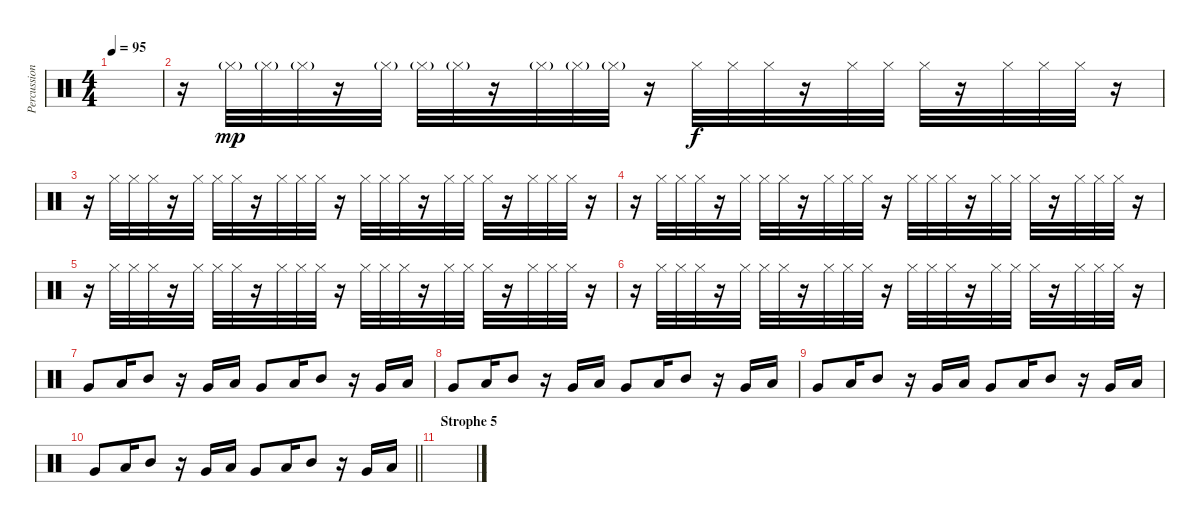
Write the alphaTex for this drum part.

\track ("Percussion" "Percussion") {instrument percussion}
\staff {score}
\articulation defaults
\ts (4 4)
\tempo 95
\clef neutral
\ks c
|
r.16 "Hi-Hat (closed)"{g}.32{dy mp} "Hi-Hat (closed)"{g}.32 "Hi-Hat (closed)"{g}.32 r.16 "Hi-Hat (closed)"{g}.32 "Hi-Hat (closed)"{g}.32 "Hi-Hat (closed)"{g}.32 r.16 "Hi-Hat (closed)"{g}.32 "Hi-Hat (closed)"{g}.32 "Hi-Hat (closed)"{g}.32 r.16 "Hi-Hat (closed)".32{dy f} "Hi-Hat (closed)".32 "Hi-Hat (closed)".32 r.16 "Hi-Hat (closed)".32 "Hi-Hat (closed)".32 "Hi-Hat (closed)".32 r.16 "Hi-Hat (closed)".32 "Hi-Hat (closed)".32 "Hi-Hat (closed)".32 r.16 |
r.16 "Hi-Hat (closed)".32 "Hi-Hat (closed)".32 "Hi-Hat (closed)".32 r.16 "Hi-Hat (closed)".32 "Hi-Hat (closed)".32 "Hi-Hat (closed)".32 r.16 "Hi-Hat (closed)".32 "Hi-Hat (closed)".32 "Hi-Hat (closed)".32 r.16 "Hi-Hat (closed)".32 "Hi-Hat (closed)".32 "Hi-Hat (closed)".32 r.16 "Hi-Hat (closed)".32 "Hi-Hat (closed)".32 "Hi-Hat (closed)".32 r.16 "Hi-Hat (closed)".32 "Hi-Hat (closed)".32 "Hi-Hat (closed)".32 r.16 |
r.16 "Hi-Hat (closed)".32 "Hi-Hat (closed)".32 "Hi-Hat (closed)".32 r.16 "Hi-Hat (closed)".32 "Hi-Hat (closed)".32 "Hi-Hat (closed)".32 r.16 "Hi-Hat (closed)".32 "Hi-Hat (closed)".32 "Hi-Hat (closed)".32 r.16 "Hi-Hat (closed)".32 "Hi-Hat (closed)".32 "Hi-Hat (closed)".32 r.16 "Hi-Hat (closed)".32 "Hi-Hat (closed)".32 "Hi-Hat (closed)".32 r.16 "Hi-Hat (closed)".32 "Hi-Hat (closed)".32 "Hi-Hat (closed)".32 r.16 |
r.16 "Hi-Hat (closed)".32 "Hi-Hat (closed)".32 "Hi-Hat (closed)".32 r.16 "Hi-Hat (closed)".32 "Hi-Hat (closed)".32 "Hi-Hat (closed)".32 r.16 "Hi-Hat (closed)".32 "Hi-Hat (closed)".32 "Hi-Hat (closed)".32 r.16 "Hi-Hat (closed)".32 "Hi-Hat (closed)".32 "Hi-Hat (closed)".32 r.16 "Hi-Hat (closed)".32 "Hi-Hat (closed)".32 "Hi-Hat (closed)".32 r.16 "Hi-Hat (closed)".32 "Hi-Hat (closed)".32 "Hi-Hat (closed)".32 r.16 |
r.16 "Hi-Hat (closed)".32 "Hi-Hat (closed)".32 "Hi-Hat (closed)".32 r.16 "Hi-Hat (closed)".32 "Hi-Hat (closed)".32 "Hi-Hat (closed)".32 r.16 "Hi-Hat (closed)".32 "Hi-Hat (closed)".32 "Hi-Hat (closed)".32 r.16 "Hi-Hat (closed)".32 "Hi-Hat (closed)".32 "Hi-Hat (closed)".32 r.16 "Hi-Hat (closed)".32 "Hi-Hat (closed)".32 "Hi-Hat (closed)".32 r.16 "Hi-Hat (closed)".32 "Hi-Hat (closed)".32 "Hi-Hat (closed)".32 r.16 |
"Very Low Tom (hit)".8 "Low Floor Tom (hit)".16 "Mid Tom (hit)".8 r.16 "Very Low Tom (hit)".16 "Low Floor Tom (hit)".16 "Very Low Tom (hit)".8 "Low Floor Tom (hit)".16 "Mid Tom (hit)".8 r.16 "Very Low Tom (hit)".16 "Low Floor Tom (hit)".16 |
"Very Low Tom (hit)".8 "Low Floor Tom (hit)".16 "Mid Tom (hit)".8 r.16 "Very Low Tom (hit)".16 "Low Floor Tom (hit)".16 "Very Low Tom (hit)".8 "Low Floor Tom (hit)".16 "Mid Tom (hit)".8 r.16 "Very Low Tom (hit)".16 "Low Floor Tom (hit)".16 |
"Very Low Tom (hit)".8 "Low Floor Tom (hit)".16 "Mid Tom (hit)".8 r.16 "Very Low Tom (hit)".16 "Low Floor Tom (hit)".16 "Very Low Tom (hit)".8 "Low Floor Tom (hit)".16 "Mid Tom (hit)".8 r.16 "Very Low Tom (hit)".16 "Low Floor Tom (hit)".16 |
\barLineRight lightlight "Very Low Tom (hit)".8 "Low Floor Tom (hit)".16 "Mid Tom (hit)".8
r.16 "Very Low Tom (hit)".16 "Low Floor Tom (hit)".16 "Very Low Tom (hit)".8 "Low Floor Tom (hit)".16 "Mid Tom (hit)".8 r.16 "Very Low Tom (hit)".16 "Low Floor Tom (hit)".16 |
\section ("" "Strophe 5")
